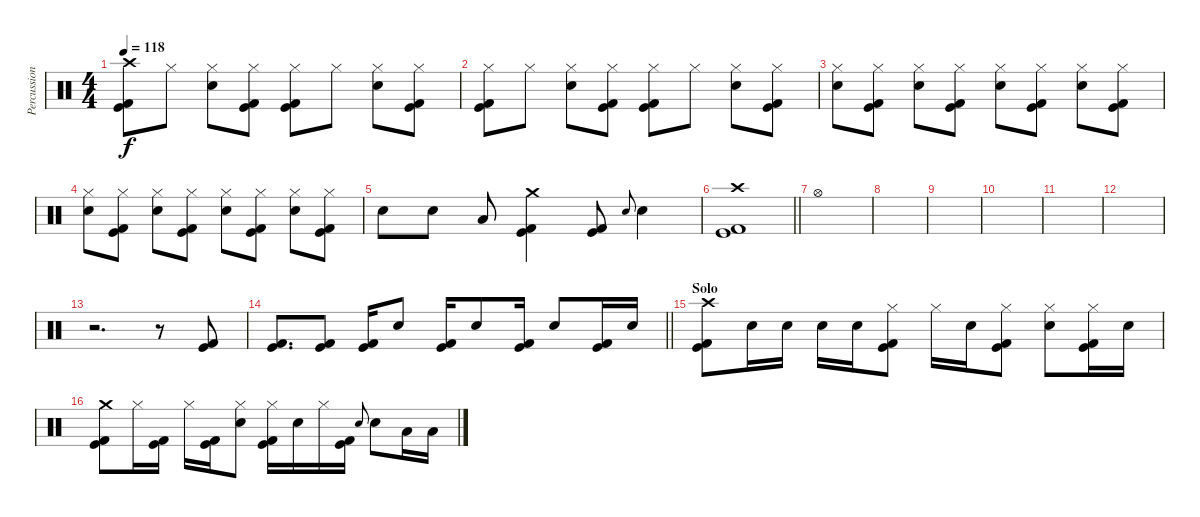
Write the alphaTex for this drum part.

\track ("Percussion" "Percussion") {instrument percussion}
\staff {score}
\articulation defaults
\ts (4 4)
\tempo 118
\clef neutral
\ks c
("Crash high (hit)" "Kick (hit)" "Kick (hit) 2").8{dy f} "Hi-Hat (closed)".8 ("Hi-Hat (closed)" "Electric Snare (hit)").8 ("Hi-Hat (closed)" "Kick (hit)" "Kick (hit) 2").8 ("Hi-Hat (closed)" "Kick (hit)" "Kick (hit) 2").8 "Hi-Hat (closed)".8 ("Hi-Hat (closed)" "Electric Snare (hit)").8 ("Hi-Hat (closed)" "Kick (hit)" "Kick (hit) 2").8 |
("Hi-Hat (closed)" "Kick (hit)" "Kick (hit) 2").8 "Hi-Hat (closed)".8 ("Hi-Hat (closed)" "Electric Snare (hit)").8 ("Hi-Hat (closed)" "Kick (hit)" "Kick (hit) 2").8 ("Hi-Hat (closed)" "Kick (hit)" "Kick (hit) 2").8 "Hi-Hat (closed)".8 ("Hi-Hat (closed)" "Electric Snare (hit)").8 ("Hi-Hat (closed)" "Kick (hit)" "Kick (hit) 2").8 |
("Hi-Hat (closed)" "Electric Snare (hit)").8 ("Hi-Hat (closed)" "Kick (hit)" "Kick (hit) 2").8 ("Hi-Hat (closed)" "Electric Snare (hit)").8 ("Hi-Hat (closed)" "Kick (hit)" "Kick (hit) 2").8 ("Hi-Hat (closed)" "Electric Snare (hit)").8 ("Hi-Hat (closed)" "Kick (hit)" "Kick (hit) 2").8 ("Hi-Hat (closed)" "Electric Snare (hit)").8 ("Hi-Hat (closed)" "Kick (hit)" "Kick (hit) 2").8 |
("Hi-Hat (closed)" "Electric Snare (hit)").8 ("Hi-Hat (closed)" "Kick (hit)" "Kick (hit) 2").8 ("Hi-Hat (closed)" "Electric Snare (hit)").8 ("Hi-Hat (closed)" "Kick (hit)" "Kick (hit) 2").8 ("Hi-Hat (closed)" "Electric Snare (hit)").8 ("Hi-Hat (closed)" "Kick (hit)" "Kick (hit) 2").8 ("Hi-Hat (closed)" "Electric Snare (hit)").8 ("Hi-Hat (closed)" "Kick (hit)" "Kick (hit) 2").8 |
"Electric Snare (hit)".8 "Electric Snare (hit)".8 "Low Tom (hit)".8 ("Crash medium (hit)" "Kick (hit)" "Kick (hit) 2").4 ("Kick (hit)" "Kick (hit) 2").8 "Electric Snare (hit)".8{gr onbeat} "Electric Snare (hit)".4 |
\barLineRight lightlight
("Crash high (hit)" "Kick (hit)" "Kick (hit) 2").1 |
\section ("" "")
"Hi-Hat (open)".1 |
|
|
|
|
|
r.2{d} r.8 ("Kick (hit)" "Kick (hit) 2").8 |
\barLineRight lightlight
("Kick (hit)" "Kick (hit) 2").8{d} ("Kick (hit)" "Kick (hit) 2").8 ("Kick (hit)" "Kick (hit) 2").16 "Electric Snare (hit)".8 ("Kick (hit)" "Kick (hit) 2").16 "Electric Snare (hit)".8 ("Kick (hit)" "Kick (hit) 2").16 "Electric Snare (hit)".8 ("Kick (hit)" "Kick (hit) 2").16 "Electric Snare (hit)".16 |
\section ("" "Solo")
("Crash high (hit)" "Kick (hit)" "Kick (hit) 2").8 "Electric Snare (hit)".16 "Electric Snare (hit)".16 "Electric Snare (hit)".16 "Electric Snare (hit)".16 ("Hi-Hat (closed)" "Kick (hit)" "Kick (hit) 2").8 "Hi-Hat (closed)".16 "Electric Snare (hit)".16 ("Hi-Hat (closed)" "Kick (hit)" "Kick (hit) 2").8 ("Hi-Hat (closed)" "Electric Snare (hit)").8 ("Hi-Hat (closed)" "Kick (hit)" "Kick (hit) 2").16 "Electric Snare (hit)".16 |
("Crash medium (hit)" "Kick (hit)" "Kick (hit) 2").8 "Hi-Hat (closed)".16 ("Kick (hit)" "Kick (hit) 2").16 "Hi-Hat (closed)".16 ("Kick (hit)" "Kick (hit) 2").16 ("Hi-Hat (closed)" "Electric Snare (hit)").8 ("Hi-Hat (closed)" "Kick (hit)" "Kick (hit) 2").16 "Electric Snare (hit)".16 "Hi-Hat (closed)".16 ("Kick (hit)" "Kick (hit) 2").16 "Electric Snare (hit)".8{gr onbeat} "Electric Snare (hit)".8 "Low Tom (hit)".16 "Low Tom (hit)".16
